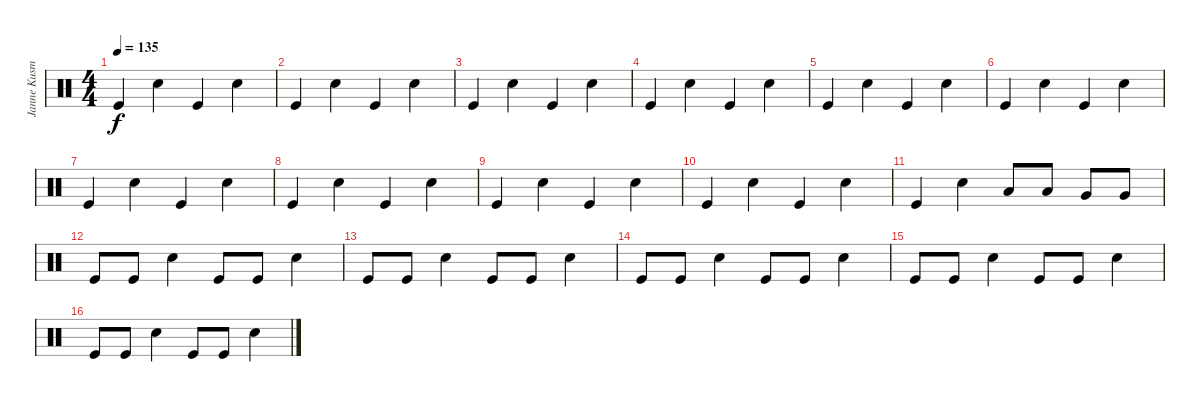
\track ("Janne Kusmin" "Janne Kusm") {instrument percussion}
\staff {score}
\articulation defaults
\ts (4 4)
\tempo 135
\clef neutral
\ks c "Kick (hit)".4{dy f} "Electric Snare (hit)".4 "Kick (hit)".4 "Electric Snare (hit)".4
|
"Kick (hit)".4 "Electric Snare (hit)".4 "Kick (hit)".4 "Electric Snare (hit)".4 |
"Kick (hit)".4 "Electric Snare (hit)".4 "Kick (hit)".4 "Electric Snare (hit)".4 |
"Kick (hit)".4 "Electric Snare (hit)".4 "Kick (hit)".4 "Electric Snare (hit)".4 |
"Kick (hit)".4 "Electric Snare (hit)".4 "Kick (hit)".4 "Electric Snare (hit)".4 |
"Kick (hit)".4 "Electric Snare (hit)".4 "Kick (hit)".4 "Electric Snare (hit)".4 |
"Kick (hit)".4 "Electric Snare (hit)".4 "Kick (hit)".4 "Electric Snare (hit)".4 |
"Kick (hit)".4 "Electric Snare (hit)".4 "Kick (hit)".4 "Electric Snare (hit)".4 |
"Kick (hit)".4 "Electric Snare (hit)".4 "Kick (hit)".4 "Electric Snare (hit)".4 |
"Kick (hit)".4 "Electric Snare (hit)".4 "Kick (hit)".4 "Electric Snare (hit)".4 |
"Kick (hit)".4 "Electric Snare (hit)".4 "Low Tom (hit)".8 "Low Tom (hit)".8 "Very Low Tom (hit)".8 "Very Low Tom (hit)".8 |
"Kick (hit)".8 "Kick (hit)".8 "Snare (hit) 2".4 "Kick (hit)".8 "Kick (hit)".8 "Snare (hit) 2".4 |
"Kick (hit)".8 "Kick (hit)".8 "Snare (hit) 2".4 "Kick (hit)".8 "Kick (hit)".8 "Snare (hit) 2".4 |
"Kick (hit)".8 "Kick (hit)".8 "Snare (hit) 2".4 "Kick (hit)".8 "Kick (hit)".8 "Snare (hit) 2".4 |
"Kick (hit)".8 "Kick (hit)".8 "Snare (hit) 2".4 "Kick (hit)".8 "Kick (hit)".8 "Snare (hit) 2".4 |
"Kick (hit)".8 "Kick (hit)".8 "Snare (hit) 2".4 "Kick (hit)".8 "Kick (hit)".8 "Snare (hit) 2".4
